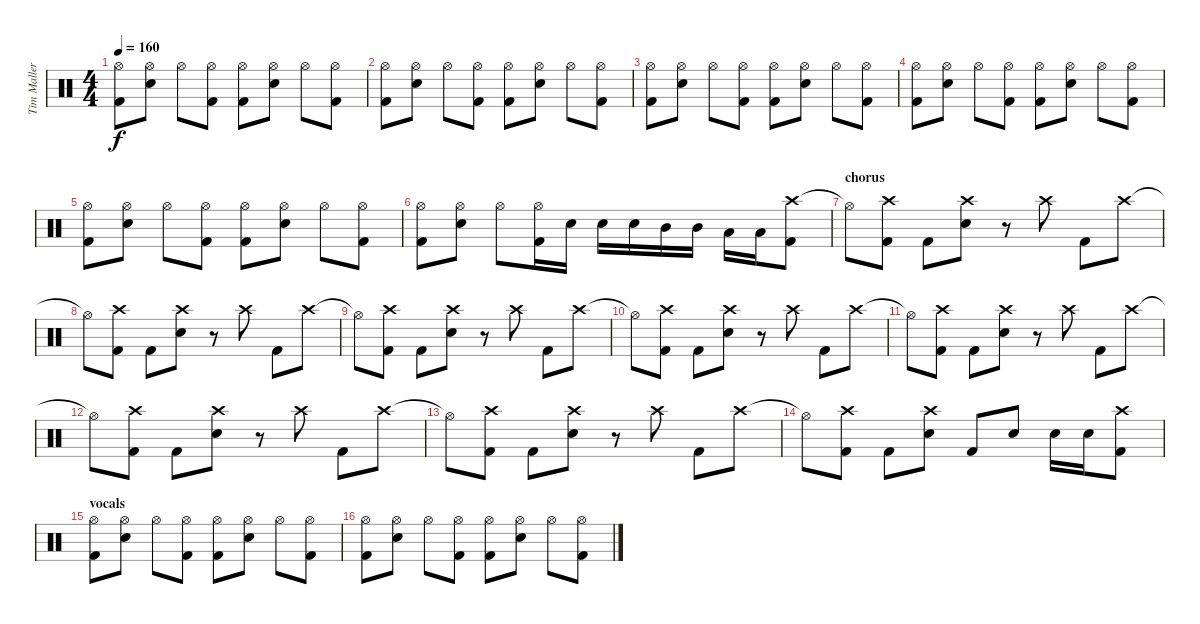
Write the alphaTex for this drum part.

\track ("Tim Mallere" "Tim Maller") {instrument percussion}
\staff {score}
\articulation defaults
\ts (4 4)
\tempo 160
\clef neutral
\ks c
("Hi-Hat (open)" "Kick (hit) 2").8{dy f} ("Hi-Hat (open)" "Electric Snare (hit)").8 "Hi-Hat (open)".8 ("Hi-Hat (open)" "Kick (hit) 2").8 ("Hi-Hat (open)" "Kick (hit) 2").8 ("Hi-Hat (open)" "Electric Snare (hit)").8 "Hi-Hat (open)".8 ("Hi-Hat (open)" "Kick (hit) 2").8 |
("Hi-Hat (open)" "Kick (hit) 2").8 ("Hi-Hat (open)" "Electric Snare (hit)").8 "Hi-Hat (open)".8 ("Hi-Hat (open)" "Kick (hit) 2").8 ("Hi-Hat (open)" "Kick (hit) 2").8 ("Hi-Hat (open)" "Electric Snare (hit)").8 "Hi-Hat (open)".8 ("Hi-Hat (open)" "Kick (hit) 2").8 |
("Hi-Hat (open)" "Kick (hit) 2").8 ("Hi-Hat (open)" "Electric Snare (hit)").8 "Hi-Hat (open)".8 ("Hi-Hat (open)" "Kick (hit) 2").8 ("Hi-Hat (open)" "Kick (hit) 2").8 ("Hi-Hat (open)" "Electric Snare (hit)").8 "Hi-Hat (open)".8 ("Hi-Hat (open)" "Kick (hit) 2").8 |
("Hi-Hat (open)" "Kick (hit) 2").8 ("Hi-Hat (open)" "Electric Snare (hit)").8 "Hi-Hat (open)".8 ("Hi-Hat (open)" "Kick (hit) 2").8 ("Hi-Hat (open)" "Kick (hit) 2").8 ("Hi-Hat (open)" "Electric Snare (hit)").8 "Hi-Hat (open)".8 ("Hi-Hat (open)" "Kick (hit) 2").8 |
("Hi-Hat (open)" "Kick (hit) 2").8 ("Hi-Hat (open)" "Electric Snare (hit)").8 "Hi-Hat (open)".8 ("Hi-Hat (open)" "Kick (hit) 2").8 ("Hi-Hat (open)" "Kick (hit) 2").8 ("Hi-Hat (open)" "Electric Snare (hit)").8 "Hi-Hat (open)".8 ("Hi-Hat (open)" "Kick (hit) 2").8 |
("Hi-Hat (open)" "Kick (hit) 2").8 ("Hi-Hat (open)" "Electric Snare (hit)").8 "Hi-Hat (open)".8 ("Hi-Hat (open)" "Kick (hit) 2").16 "Electric Snare (hit)".16 "Electric Snare (hit)".16 "Electric Snare (hit)".16 "Mid Tom (hit)".16 "Mid Tom (hit)".16 "Low Tom (hit)".16 "Low Tom (hit)".16 ("Crash high (hit)" "Kick (hit) 2").8 |
\section ("" "chorus")
"Hi-Hat (open)"{t}.8 ("Crash high (hit)" "Kick (hit) 2").8 "Kick (hit) 2".8 ("Crash high (hit)" "Electric Snare (hit)").8 r.8 "Crash high (hit)".8 "Kick (hit) 2".8 "Crash high (hit)".8 |
"Hi-Hat (open)"{t}.8 ("Crash high (hit)" "Kick (hit) 2").8 "Kick (hit) 2".8 ("Crash high (hit)" "Electric Snare (hit)").8 r.8 "Crash high (hit)".8 "Kick (hit) 2".8 "Crash high (hit)".8 |
"Hi-Hat (open)"{t}.8 ("Crash high (hit)" "Kick (hit) 2").8 "Kick (hit) 2".8 ("Crash high (hit)" "Electric Snare (hit)").8 r.8 "Crash high (hit)".8 "Kick (hit) 2".8 "Crash high (hit)".8 |
"Hi-Hat (open)"{t}.8 ("Crash high (hit)" "Kick (hit) 2").8 "Kick (hit) 2".8 ("Crash high (hit)" "Electric Snare (hit)").8 r.8 "Crash high (hit)".8 "Kick (hit) 2".8 "Crash high (hit)".8 |
"Hi-Hat (open)"{t}.8 ("Crash high (hit)" "Kick (hit) 2").8 "Kick (hit) 2".8 ("Crash high (hit)" "Electric Snare (hit)").8 r.8 "Crash high (hit)".8 "Kick (hit) 2".8 "Crash high (hit)".8 |
"Hi-Hat (open)"{t}.8 ("Crash high (hit)" "Kick (hit) 2").8 "Kick (hit) 2".8 ("Crash high (hit)" "Electric Snare (hit)").8 r.8 "Crash high (hit)".8 "Kick (hit) 2".8 "Crash high (hit)".8 |
"Hi-Hat (open)"{t}.8 ("Crash high (hit)" "Kick (hit) 2").8 "Kick (hit) 2".8 ("Crash high (hit)" "Electric Snare (hit)").8 r.8 "Crash high (hit)".8 "Kick (hit) 2".8 "Crash high (hit)".8 |
"Hi-Hat (open)"{t}.8 ("Crash high (hit)" "Kick (hit) 2").8 "Kick (hit) 2".8 ("Crash high (hit)" "Electric Snare (hit)").8 "Kick (hit) 2".8 "Electric Snare (hit)".8 "Electric Snare (hit)".16 "Electric Snare (hit)".16 ("Crash high (hit)" "Kick (hit) 2").8 |
\section ("" "vocals")
("Hi-Hat (open)" "Kick (hit) 2").8 ("Hi-Hat (open)" "Electric Snare (hit)").8 "Hi-Hat (open)".8 ("Hi-Hat (open)" "Kick (hit) 2").8 ("Hi-Hat (open)" "Kick (hit) 2").8 ("Hi-Hat (open)" "Electric Snare (hit)").8 "Hi-Hat (open)".8 ("Hi-Hat (open)" "Kick (hit) 2").8 |
("Hi-Hat (open)" "Kick (hit) 2").8 ("Hi-Hat (open)" "Electric Snare (hit)").8 "Hi-Hat (open)".8 ("Hi-Hat (open)" "Kick (hit) 2").8 ("Hi-Hat (open)" "Kick (hit) 2").8 ("Hi-Hat (open)" "Electric Snare (hit)").8 "Hi-Hat (open)".8 ("Hi-Hat (open)" "Kick (hit) 2").8
